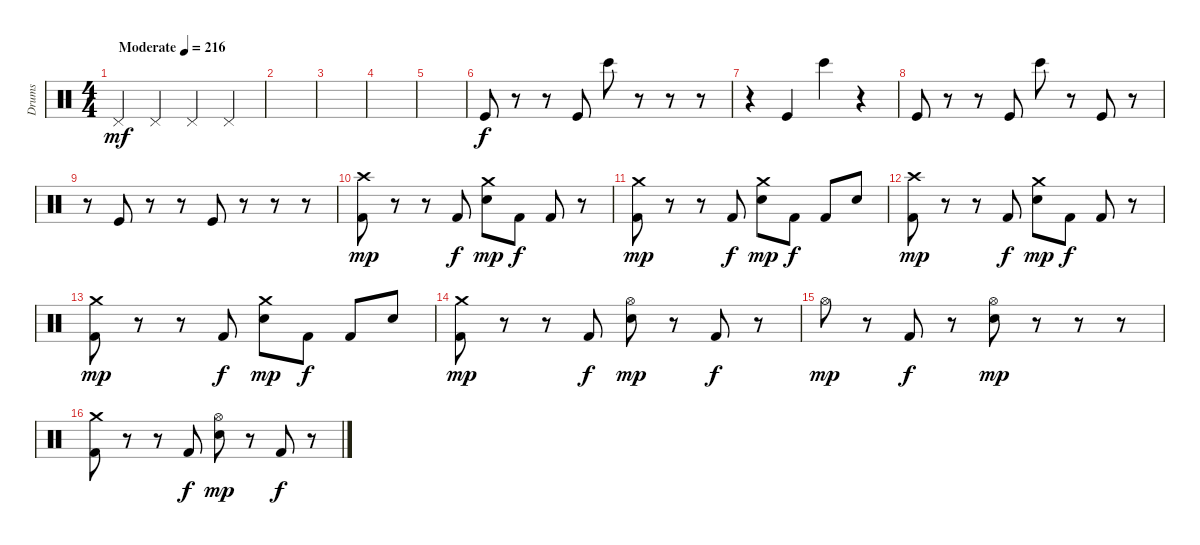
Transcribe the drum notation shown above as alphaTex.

\track ("Drums" "Drums") {instrument percussion}
\staff {score}
\articulation defaults
\ts (4 4)
\tempo (216 "Moderate")
\clef neutral
\ks c "Pedal Hi-Hat (hit)".4{dy mf} "Pedal Hi-Hat (hit)".4 "Pedal Hi-Hat (hit)".4 "Pedal Hi-Hat (hit)".4
|
|
|
|
|
"Kick (hit)".8{dy f} r.8 r.8 "Kick (hit)".8 "Bongo High (hit)".8 r.8 r.8 r.8 |
r.4 "Kick (hit)".4 "Bongo High (hit)".4 r.4 |
"Kick (hit)".8 r.8 r.8 "Kick (hit)".8 "Bongo High (hit)".8 r.8 "Kick (hit)".8 r.8 |
r.8 "Kick (hit)".8 r.8 r.8 "Kick (hit)".8 r.8 r.8 r.8 |
("Kick (hit) 2" "Crash high (hit)").8{dy mp} r.8 r.8 "Kick (hit) 2".8{dy f} ("Snare (hit) 2" "Crash medium (hit)").8{dy mp} "Kick (hit) 2".8{dy f} "Kick (hit) 2".8 r.8 |
("Kick (hit) 2" "Crash medium (hit)").8{dy mp} r.8 r.8 "Kick (hit) 2".8{dy f} ("Snare (hit) 2" "Crash medium (hit)").8{dy mp} "Kick (hit) 2".8{dy f} "Kick (hit) 2".8 "Snare (hit) 2".8 |
("Kick (hit) 2" "Crash high (hit)").8{dy mp} r.8 r.8 "Kick (hit) 2".8{dy f} ("Snare (hit) 2" "Crash medium (hit)").8{dy mp} "Kick (hit) 2".8{dy f} "Kick (hit) 2".8 r.8 |
("Kick (hit) 2" "Crash medium (hit)").8{dy mp} r.8 r.8 "Kick (hit) 2".8{dy f} ("Snare (hit) 2" "Crash medium (hit)").8{dy mp} "Kick (hit) 2".8{dy f} "Kick (hit) 2".8 "Snare (hit) 2".8 |
("Kick (hit) 2" "Crash medium (hit)").8{dy mp} r.8 r.8 "Kick (hit) 2".8{dy f} ("Snare (hit) 2" "Hi-Hat (open)").8{dy mp} r.8 "Kick (hit) 2".8{dy f} r.8 |
"Hi-Hat (open)".8{dy mp} r.8 "Kick (hit) 2".8{dy f} r.8 ("Snare (hit) 2" "Hi-Hat (open)").8{dy mp} r.8 r.8 r.8 |
("Kick (hit) 2" "Crash medium (hit)").8 r.8 r.8 "Kick (hit) 2".8{dy f} ("Snare (hit) 2" "Hi-Hat (open)").8{dy mp} r.8 "Kick (hit) 2".8{dy f} r.8
